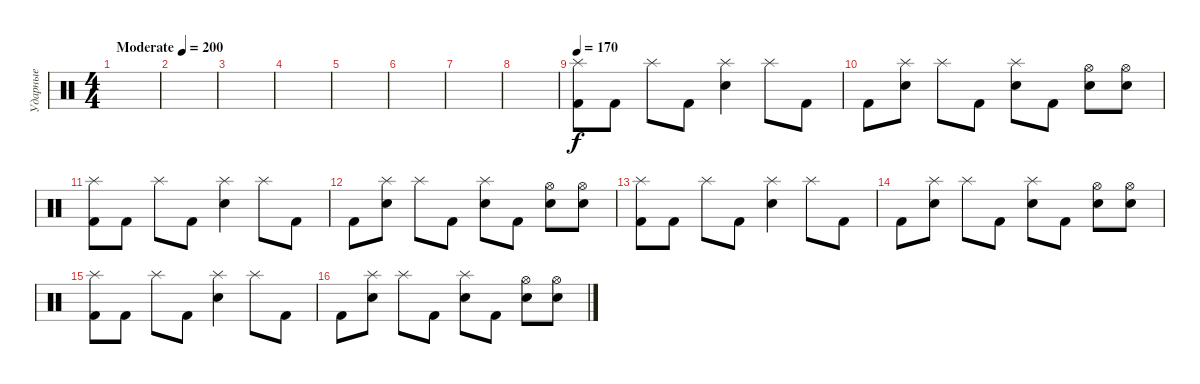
\track ("Ударные" "Ударные") {instrument percussion}
\staff {score}
\articulation defaults
\ts (4 4)
\tempo (200 "Moderate")
\clef neutral
\ks c
|
|
|
|
|
|
|
|
\tempo 210
\tempo 170
("Splash (hit)" "Kick (hit) 2").8 "Kick (hit) 2".8 "Splash (hit)".8 "Kick (hit) 2".8 ("Splash (hit)" "Electric Snare (hit)").4 "Splash (hit)".8 "Kick (hit) 2".8 |
"Kick (hit) 2".8 ("Splash (hit)" "Electric Snare (hit)").8 "Splash (hit)".8 "Kick (hit) 2".8 ("Splash (hit)" "Electric Snare (hit)").8 "Kick (hit) 2".8 ("Hi-Hat (open)" "Electric Snare (hit)").8 ("Hi-Hat (open)" "Electric Snare (hit)").8 |
("Splash (hit)" "Kick (hit) 2").8 "Kick (hit) 2".8 "Splash (hit)".8 "Kick (hit) 2".8 ("Splash (hit)" "Electric Snare (hit)").4 "Splash (hit)".8 "Kick (hit) 2".8 |
"Kick (hit) 2".8 ("Splash (hit)" "Electric Snare (hit)").8 "Splash (hit)".8 "Kick (hit) 2".8 ("Splash (hit)" "Electric Snare (hit)").8 "Kick (hit) 2".8 ("Hi-Hat (open)" "Electric Snare (hit)").8 ("Hi-Hat (open)" "Electric Snare (hit)").8 |
("Splash (hit)" "Kick (hit) 2").8 "Kick (hit) 2".8 "Splash (hit)".8 "Kick (hit) 2".8 ("Splash (hit)" "Electric Snare (hit)").4 "Splash (hit)".8 "Kick (hit) 2".8 |
"Kick (hit) 2".8 ("Splash (hit)" "Electric Snare (hit)").8 "Splash (hit)".8 "Kick (hit) 2".8 ("Splash (hit)" "Electric Snare (hit)").8 "Kick (hit) 2".8 ("Hi-Hat (open)" "Electric Snare (hit)").8 ("Hi-Hat (open)" "Electric Snare (hit)").8 |
("Splash (hit)" "Kick (hit) 2").8 "Kick (hit) 2".8 "Splash (hit)".8 "Kick (hit) 2".8 ("Splash (hit)" "Electric Snare (hit)").4 "Splash (hit)".8 "Kick (hit) 2".8 |
"Kick (hit) 2".8 ("Splash (hit)" "Electric Snare (hit)").8 "Splash (hit)".8 "Kick (hit) 2".8 ("Splash (hit)" "Electric Snare (hit)").8 "Kick (hit) 2".8 ("Hi-Hat (open)" "Electric Snare (hit)").8 ("Hi-Hat (open)" "Electric Snare (hit)").8
